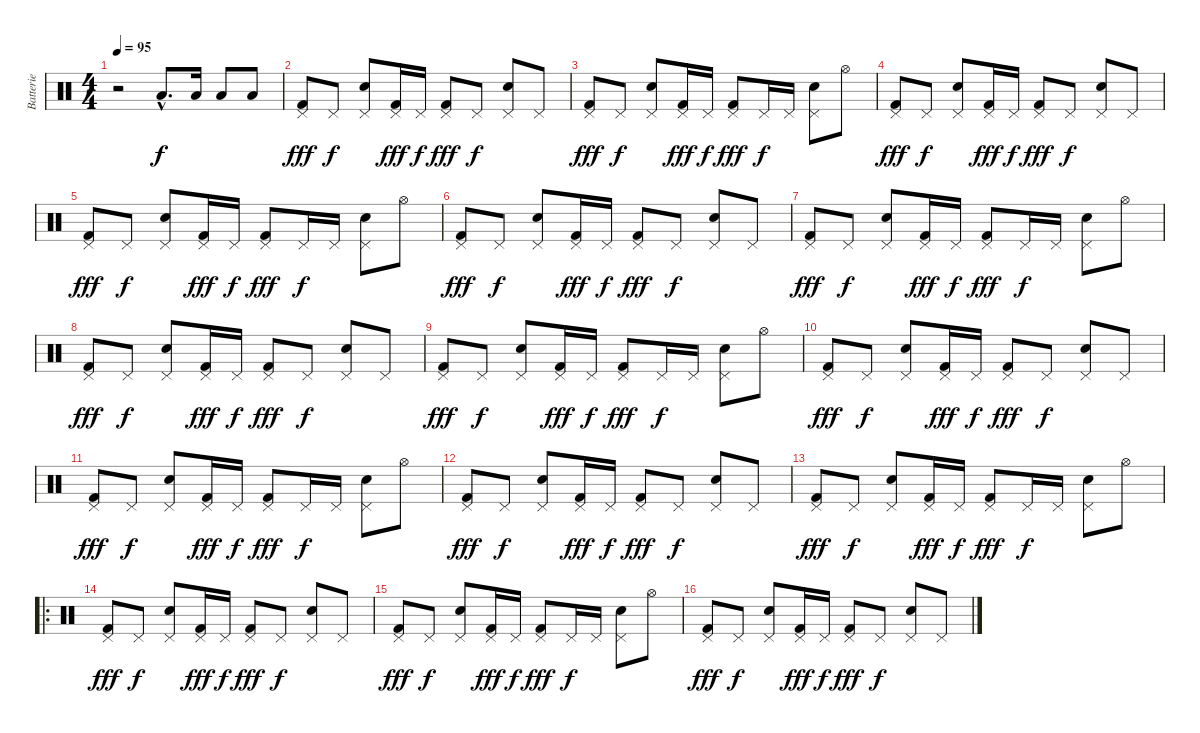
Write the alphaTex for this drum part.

\track ("Batterie" "Batterie") {instrument percussion}
\staff {score}
\articulation defaults
\ts (4 4)
\tempo 95
\clef neutral
\ks c
r.2{dy f} "Low Tom (hit)"{hac}.8{d} "Low Tom (hit)".16 "Low Tom (hit)".8 "Low Tom (hit)".8 |
("Pedal Hi-Hat (hit)" "Kick (hit) 2").8{dy fff} "Pedal Hi-Hat (hit)".8{dy f} ("Pedal Hi-Hat (hit)" "Electric Snare (hit)").8 ("Pedal Hi-Hat (hit)" "Kick (hit) 2").16{dy fff} "Pedal Hi-Hat (hit)".16{dy f} ("Pedal Hi-Hat (hit)" "Kick (hit) 2").8{dy fff} "Pedal Hi-Hat (hit)".8{dy f} ("Pedal Hi-Hat (hit)" "Electric Snare (hit)").8 "Pedal Hi-Hat (hit)".8 |
("Pedal Hi-Hat (hit)" "Kick (hit) 2").8{dy fff} "Pedal Hi-Hat (hit)".8{dy f} ("Pedal Hi-Hat (hit)" "Electric Snare (hit)").8 ("Pedal Hi-Hat (hit)" "Kick (hit) 2").16{dy fff} "Pedal Hi-Hat (hit)".16{dy f} ("Pedal Hi-Hat (hit)" "Kick (hit) 2").8{dy fff} "Pedal Hi-Hat (hit)".16{dy f} "Pedal Hi-Hat (hit)".16 ("Pedal Hi-Hat (hit)" "Electric Snare (hit)").8 "Hi-Hat (open)".8 |
("Pedal Hi-Hat (hit)" "Kick (hit) 2").8{dy fff} "Pedal Hi-Hat (hit)".8{dy f} ("Pedal Hi-Hat (hit)" "Electric Snare (hit)").8 ("Pedal Hi-Hat (hit)" "Kick (hit) 2").16{dy fff} "Pedal Hi-Hat (hit)".16{dy f} ("Pedal Hi-Hat (hit)" "Kick (hit) 2").8{dy fff} "Pedal Hi-Hat (hit)".8{dy f} ("Pedal Hi-Hat (hit)" "Electric Snare (hit)").8 "Pedal Hi-Hat (hit)".8 |
("Pedal Hi-Hat (hit)" "Kick (hit) 2").8{dy fff} "Pedal Hi-Hat (hit)".8{dy f} ("Pedal Hi-Hat (hit)" "Electric Snare (hit)").8 ("Pedal Hi-Hat (hit)" "Kick (hit) 2").16{dy fff} "Pedal Hi-Hat (hit)".16{dy f} ("Pedal Hi-Hat (hit)" "Kick (hit) 2").8{dy fff} "Pedal Hi-Hat (hit)".16{dy f} "Pedal Hi-Hat (hit)".16 ("Pedal Hi-Hat (hit)" "Electric Snare (hit)").8 "Hi-Hat (open)".8 |
("Pedal Hi-Hat (hit)" "Kick (hit) 2").8{dy fff} "Pedal Hi-Hat (hit)".8{dy f} ("Pedal Hi-Hat (hit)" "Electric Snare (hit)").8 ("Pedal Hi-Hat (hit)" "Kick (hit) 2").16{dy fff} "Pedal Hi-Hat (hit)".16{dy f} ("Pedal Hi-Hat (hit)" "Kick (hit) 2").8{dy fff} "Pedal Hi-Hat (hit)".8{dy f} ("Pedal Hi-Hat (hit)" "Electric Snare (hit)").8 "Pedal Hi-Hat (hit)".8 |
("Pedal Hi-Hat (hit)" "Kick (hit) 2").8{dy fff} "Pedal Hi-Hat (hit)".8{dy f} ("Pedal Hi-Hat (hit)" "Electric Snare (hit)").8 ("Pedal Hi-Hat (hit)" "Kick (hit) 2").16{dy fff} "Pedal Hi-Hat (hit)".16{dy f} ("Pedal Hi-Hat (hit)" "Kick (hit) 2").8{dy fff} "Pedal Hi-Hat (hit)".16{dy f} "Pedal Hi-Hat (hit)".16 ("Pedal Hi-Hat (hit)" "Electric Snare (hit)").8 "Hi-Hat (open)".8 |
("Pedal Hi-Hat (hit)" "Kick (hit) 2").8{dy fff} "Pedal Hi-Hat (hit)".8{dy f} ("Pedal Hi-Hat (hit)" "Electric Snare (hit)").8 ("Pedal Hi-Hat (hit)" "Kick (hit) 2").16{dy fff} "Pedal Hi-Hat (hit)".16{dy f} ("Pedal Hi-Hat (hit)" "Kick (hit) 2").8{dy fff} "Pedal Hi-Hat (hit)".8{dy f} ("Pedal Hi-Hat (hit)" "Electric Snare (hit)").8 "Pedal Hi-Hat (hit)".8 |
("Pedal Hi-Hat (hit)" "Kick (hit) 2").8{dy fff} "Pedal Hi-Hat (hit)".8{dy f} ("Pedal Hi-Hat (hit)" "Electric Snare (hit)").8 ("Pedal Hi-Hat (hit)" "Kick (hit) 2").16{dy fff} "Pedal Hi-Hat (hit)".16{dy f} ("Pedal Hi-Hat (hit)" "Kick (hit) 2").8{dy fff} "Pedal Hi-Hat (hit)".16{dy f} "Pedal Hi-Hat (hit)".16 ("Pedal Hi-Hat (hit)" "Electric Snare (hit)").8 "Hi-Hat (open)".8 |
("Pedal Hi-Hat (hit)" "Kick (hit) 2").8{dy fff} "Pedal Hi-Hat (hit)".8{dy f} ("Pedal Hi-Hat (hit)" "Electric Snare (hit)").8 ("Pedal Hi-Hat (hit)" "Kick (hit) 2").16{dy fff} "Pedal Hi-Hat (hit)".16{dy f} ("Pedal Hi-Hat (hit)" "Kick (hit) 2").8{dy fff} "Pedal Hi-Hat (hit)".8{dy f} ("Pedal Hi-Hat (hit)" "Electric Snare (hit)").8 "Pedal Hi-Hat (hit)".8 |
("Pedal Hi-Hat (hit)" "Kick (hit) 2").8{dy fff} "Pedal Hi-Hat (hit)".8{dy f} ("Pedal Hi-Hat (hit)" "Electric Snare (hit)").8 ("Pedal Hi-Hat (hit)" "Kick (hit) 2").16{dy fff} "Pedal Hi-Hat (hit)".16{dy f} ("Pedal Hi-Hat (hit)" "Kick (hit) 2").8{dy fff} "Pedal Hi-Hat (hit)".16{dy f} "Pedal Hi-Hat (hit)".16 ("Pedal Hi-Hat (hit)" "Electric Snare (hit)").8 "Hi-Hat (open)".8 |
("Pedal Hi-Hat (hit)" "Kick (hit) 2").8{dy fff} "Pedal Hi-Hat (hit)".8{dy f} ("Pedal Hi-Hat (hit)" "Electric Snare (hit)").8 ("Pedal Hi-Hat (hit)" "Kick (hit) 2").16{dy fff} "Pedal Hi-Hat (hit)".16{dy f} ("Pedal Hi-Hat (hit)" "Kick (hit) 2").8{dy fff} "Pedal Hi-Hat (hit)".8{dy f} ("Pedal Hi-Hat (hit)" "Electric Snare (hit)").8 "Pedal Hi-Hat (hit)".8 |
("Pedal Hi-Hat (hit)" "Kick (hit) 2").8{dy fff} "Pedal Hi-Hat (hit)".8{dy f} ("Pedal Hi-Hat (hit)" "Electric Snare (hit)").8 ("Pedal Hi-Hat (hit)" "Kick (hit) 2").16{dy fff} "Pedal Hi-Hat (hit)".16{dy f} ("Pedal Hi-Hat (hit)" "Kick (hit) 2").8{dy fff} "Pedal Hi-Hat (hit)".16{dy f} "Pedal Hi-Hat (hit)".16 ("Pedal Hi-Hat (hit)" "Electric Snare (hit)").8 "Hi-Hat (open)".8 |
\ro
("Pedal Hi-Hat (hit)" "Kick (hit) 2").8{dy fff} "Pedal Hi-Hat (hit)".8{dy f} ("Pedal Hi-Hat (hit)" "Electric Snare (hit)").8 ("Pedal Hi-Hat (hit)" "Kick (hit) 2").16{dy fff} "Pedal Hi-Hat (hit)".16{dy f} ("Pedal Hi-Hat (hit)" "Kick (hit) 2").8{dy fff} "Pedal Hi-Hat (hit)".8{dy f} ("Pedal Hi-Hat (hit)" "Electric Snare (hit)").8 "Pedal Hi-Hat (hit)".8 |
("Pedal Hi-Hat (hit)" "Kick (hit) 2").8{dy fff} "Pedal Hi-Hat (hit)".8{dy f} ("Pedal Hi-Hat (hit)" "Electric Snare (hit)").8 ("Pedal Hi-Hat (hit)" "Kick (hit) 2").16{dy fff} "Pedal Hi-Hat (hit)".16{dy f} ("Pedal Hi-Hat (hit)" "Kick (hit) 2").8{dy fff} "Pedal Hi-Hat (hit)".16{dy f} "Pedal Hi-Hat (hit)".16 ("Pedal Hi-Hat (hit)" "Electric Snare (hit)").8 "Hi-Hat (open)".8 |
("Pedal Hi-Hat (hit)" "Kick (hit) 2").8{dy fff} "Pedal Hi-Hat (hit)".8{dy f} ("Pedal Hi-Hat (hit)" "Electric Snare (hit)").8 ("Pedal Hi-Hat (hit)" "Kick (hit) 2").16{dy fff} "Pedal Hi-Hat (hit)".16{dy f} ("Pedal Hi-Hat (hit)" "Kick (hit) 2").8{dy fff} "Pedal Hi-Hat (hit)".8{dy f} ("Pedal Hi-Hat (hit)" "Electric Snare (hit)").8 "Pedal Hi-Hat (hit)".8
